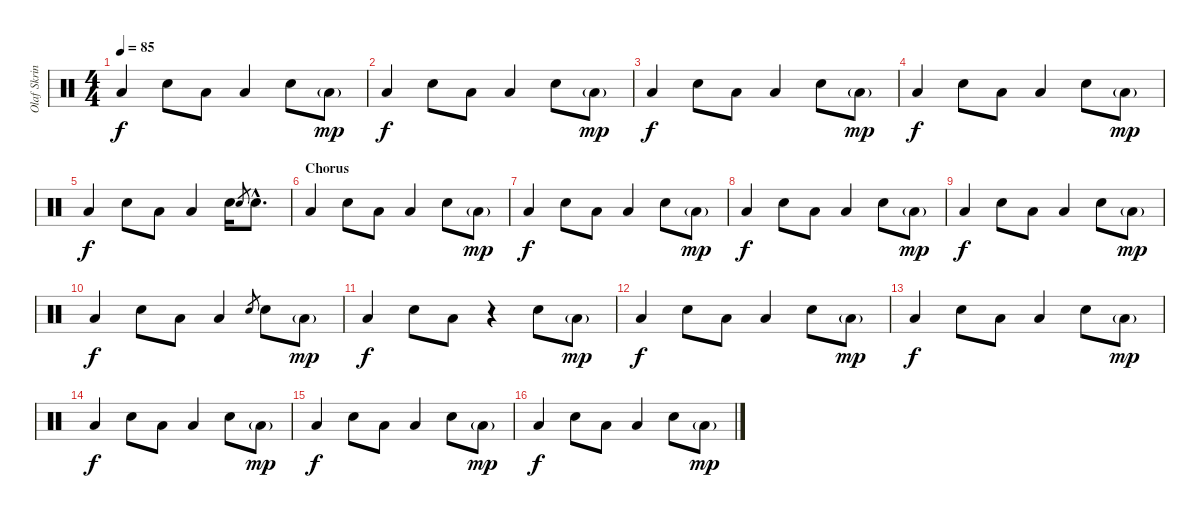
\track ("Olaf Skrinde (Drums)" "Olaf Skrin") {instrument percussion}
\staff {score}
\articulation defaults
\ts (4 4)
\tempo 85
\clef neutral
\ks c "Low Floor Tom (hit)".4{dy f} "Snare (hit) 2".8 "Low Floor Tom (hit)".8 "Low Floor Tom (hit)".4 "Snare (hit) 2".8 "Low Floor Tom (hit)"{g}.8{dy mp}
|
"Low Floor Tom (hit)".4{dy f} "Snare (hit) 2".8 "Low Floor Tom (hit)".8 "Low Floor Tom (hit)".4 "Snare (hit) 2".8 "Low Floor Tom (hit)"{g}.8{dy mp} |
"Low Floor Tom (hit)".4{dy f} "Snare (hit) 2".8 "Low Floor Tom (hit)".8 "Low Floor Tom (hit)".4 "Snare (hit) 2".8 "Low Floor Tom (hit)"{g}.8{dy mp} |
"Low Floor Tom (hit)".4{dy f} "Snare (hit) 2".8 "Low Floor Tom (hit)".8 "Low Floor Tom (hit)".4 "Snare (hit) 2".8 "Low Floor Tom (hit)"{g}.8{dy mp} |
"Low Floor Tom (hit)".4{dy f} "Snare (hit) 2".8 "Low Floor Tom (hit)".8 "Low Floor Tom (hit)".4 "Snare (hit) 2".16 "Snare (hit) 2".8{gr} "Snare (hit) 2"{hac}.8{d} |
\section ("" "Chorus")
"Low Floor Tom (hit)".4 "Snare (hit) 2".8 "Low Floor Tom (hit)".8 "Low Floor Tom (hit)".4 "Snare (hit) 2".8 "Low Floor Tom (hit)"{g}.8{dy mp} |
"Low Floor Tom (hit)".4{dy f} "Snare (hit) 2".8 "Low Floor Tom (hit)".8 "Low Floor Tom (hit)".4 "Snare (hit) 2".8 "Low Floor Tom (hit)"{g}.8{dy mp} |
"Low Floor Tom (hit)".4{dy f} "Snare (hit) 2".8 "Low Floor Tom (hit)".8 "Low Floor Tom (hit)".4 "Snare (hit) 2".8 "Low Floor Tom (hit)"{g}.8{dy mp} |
"Low Floor Tom (hit)".4{dy f} "Snare (hit) 2".8 "Low Floor Tom (hit)".8 "Low Floor Tom (hit)".4 "Snare (hit) 2".8 "Low Floor Tom (hit)"{g}.8{dy mp} |
"Low Floor Tom (hit)".4{dy f} "Snare (hit) 2".8 "Low Floor Tom (hit)".8 "Low Floor Tom (hit)".4 "Snare (hit) 2".8{gr} "Snare (hit) 2".8 "Low Floor Tom (hit)"{g}.8{dy mp} |
"Low Floor Tom (hit)".4{dy f} "Snare (hit) 2".8 "Low Floor Tom (hit)".8 r.4 "Snare (hit) 2".8 "Low Floor Tom (hit)"{g}.8{dy mp} |
"Low Floor Tom (hit)".4{dy f} "Snare (hit) 2".8 "Low Floor Tom (hit)".8 "Low Floor Tom (hit)".4 "Snare (hit) 2".8 "Low Floor Tom (hit)"{g}.8{dy mp} |
"Low Floor Tom (hit)".4{dy f} "Snare (hit) 2".8 "Low Floor Tom (hit)".8 "Low Floor Tom (hit)".4 "Snare (hit) 2".8 "Low Floor Tom (hit)"{g}.8{dy mp} |
"Low Floor Tom (hit)".4{dy f} "Snare (hit) 2".8 "Low Floor Tom (hit)".8 "Low Floor Tom (hit)".4 "Snare (hit) 2".8 "Low Floor Tom (hit)"{g}.8{dy mp} |
"Low Floor Tom (hit)".4{dy f} "Snare (hit) 2".8 "Low Floor Tom (hit)".8 "Low Floor Tom (hit)".4 "Snare (hit) 2".8 "Low Floor Tom (hit)"{g}.8{dy mp} |
"Low Floor Tom (hit)".4{dy f} "Snare (hit) 2".8 "Low Floor Tom (hit)".8 "Low Floor Tom (hit)".4 "Snare (hit) 2".8 "Low Floor Tom (hit)"{g}.8{dy mp}
